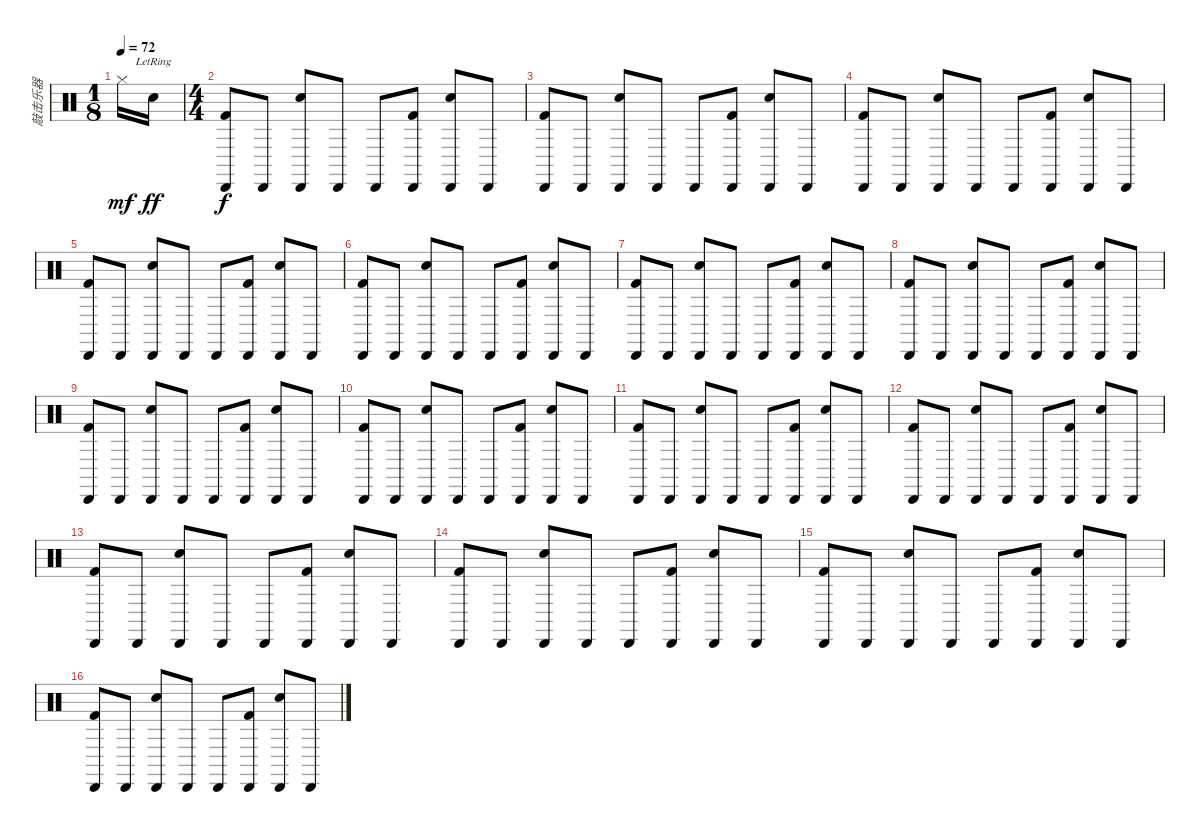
\track ("敲击乐器" "敲击乐器") {instrument percussion}
\staff {score}
\articulation defaults
\ts (1 8)
\tempo 72
\clef neutral
\ks c "Hi-Hat (closed)".16{dy mf} "Electric Snare (hit)"{lr}.16{dy ff}
|
\ts (4 4)
("Cabasa (hit)" "Kick (hit) 2").8{dy f} "Cabasa (hit)".8 ("Cabasa (hit)" "Electric Snare (hit)").8 "Cabasa (hit)".8 "Cabasa (hit)".8 ("Cabasa (hit)" "Kick (hit) 2").8 ("Cabasa (hit)" "Electric Snare (hit)").8 "Cabasa (hit)".8 |
("Cabasa (hit)" "Kick (hit) 2").8 "Cabasa (hit)".8 ("Cabasa (hit)" "Electric Snare (hit)").8 "Cabasa (hit)".8 "Cabasa (hit)".8 ("Cabasa (hit)" "Kick (hit) 2").8 ("Cabasa (hit)" "Electric Snare (hit)").8 "Cabasa (hit)".8 |
("Cabasa (hit)" "Kick (hit) 2").8 "Cabasa (hit)".8 ("Cabasa (hit)" "Electric Snare (hit)").8 "Cabasa (hit)".8 "Cabasa (hit)".8 ("Cabasa (hit)" "Kick (hit) 2").8 ("Cabasa (hit)" "Electric Snare (hit)").8 "Cabasa (hit)".8 |
("Cabasa (hit)" "Kick (hit) 2").8 "Cabasa (hit)".8 ("Cabasa (hit)" "Electric Snare (hit)").8 "Cabasa (hit)".8 "Cabasa (hit)".8 ("Cabasa (hit)" "Kick (hit) 2").8 ("Cabasa (hit)" "Electric Snare (hit)").8 "Cabasa (hit)".8 |
("Cabasa (hit)" "Kick (hit) 2").8 "Cabasa (hit)".8 ("Cabasa (hit)" "Electric Snare (hit)").8 "Cabasa (hit)".8 "Cabasa (hit)".8 ("Cabasa (hit)" "Kick (hit) 2").8 ("Cabasa (hit)" "Electric Snare (hit)").8 "Cabasa (hit)".8 |
("Cabasa (hit)" "Kick (hit) 2").8 "Cabasa (hit)".8 ("Cabasa (hit)" "Electric Snare (hit)").8 "Cabasa (hit)".8 "Cabasa (hit)".8 ("Cabasa (hit)" "Kick (hit) 2").8 ("Cabasa (hit)" "Electric Snare (hit)").8 "Cabasa (hit)".8 |
("Cabasa (hit)" "Kick (hit) 2").8 "Cabasa (hit)".8 ("Cabasa (hit)" "Electric Snare (hit)").8 "Cabasa (hit)".8 "Cabasa (hit)".8 ("Cabasa (hit)" "Kick (hit) 2").8 ("Cabasa (hit)" "Electric Snare (hit)").8 "Cabasa (hit)".8 |
("Cabasa (hit)" "Kick (hit) 2").8 "Cabasa (hit)".8 ("Cabasa (hit)" "Electric Snare (hit)").8 "Cabasa (hit)".8 "Cabasa (hit)".8 ("Cabasa (hit)" "Kick (hit) 2").8 ("Cabasa (hit)" "Electric Snare (hit)").8 "Cabasa (hit)".8 |
("Cabasa (hit)" "Kick (hit) 2").8 "Cabasa (hit)".8 ("Cabasa (hit)" "Electric Snare (hit)").8 "Cabasa (hit)".8 "Cabasa (hit)".8 ("Cabasa (hit)" "Kick (hit) 2").8 ("Cabasa (hit)" "Electric Snare (hit)").8 "Cabasa (hit)".8 |
("Cabasa (hit)" "Kick (hit) 2").8 "Cabasa (hit)".8 ("Cabasa (hit)" "Electric Snare (hit)").8 "Cabasa (hit)".8 "Cabasa (hit)".8 ("Cabasa (hit)" "Kick (hit) 2").8 ("Cabasa (hit)" "Electric Snare (hit)").8 "Cabasa (hit)".8 |
("Cabasa (hit)" "Kick (hit) 2").8 "Cabasa (hit)".8 ("Cabasa (hit)" "Electric Snare (hit)").8 "Cabasa (hit)".8 "Cabasa (hit)".8 ("Cabasa (hit)" "Kick (hit) 2").8 ("Cabasa (hit)" "Electric Snare (hit)").8 "Cabasa (hit)".8 |
("Cabasa (hit)" "Kick (hit) 2").8 "Cabasa (hit)".8 ("Cabasa (hit)" "Electric Snare (hit)").8 "Cabasa (hit)".8 "Cabasa (hit)".8 ("Cabasa (hit)" "Kick (hit) 2").8 ("Cabasa (hit)" "Electric Snare (hit)").8 "Cabasa (hit)".8 |
("Cabasa (hit)" "Kick (hit) 2").8 "Cabasa (hit)".8 ("Cabasa (hit)" "Electric Snare (hit)").8 "Cabasa (hit)".8 "Cabasa (hit)".8 ("Cabasa (hit)" "Kick (hit) 2").8 ("Cabasa (hit)" "Electric Snare (hit)").8 "Cabasa (hit)".8 |
("Cabasa (hit)" "Kick (hit) 2").8 "Cabasa (hit)".8 ("Cabasa (hit)" "Electric Snare (hit)").8 "Cabasa (hit)".8 "Cabasa (hit)".8 ("Cabasa (hit)" "Kick (hit) 2").8 ("Cabasa (hit)" "Electric Snare (hit)").8 "Cabasa (hit)".8 |
("Cabasa (hit)" "Kick (hit) 2").8 "Cabasa (hit)".8 ("Cabasa (hit)" "Electric Snare (hit)").8 "Cabasa (hit)".8 "Cabasa (hit)".8 ("Cabasa (hit)" "Kick (hit) 2").8 ("Cabasa (hit)" "Electric Snare (hit)").8 "Cabasa (hit)".8
